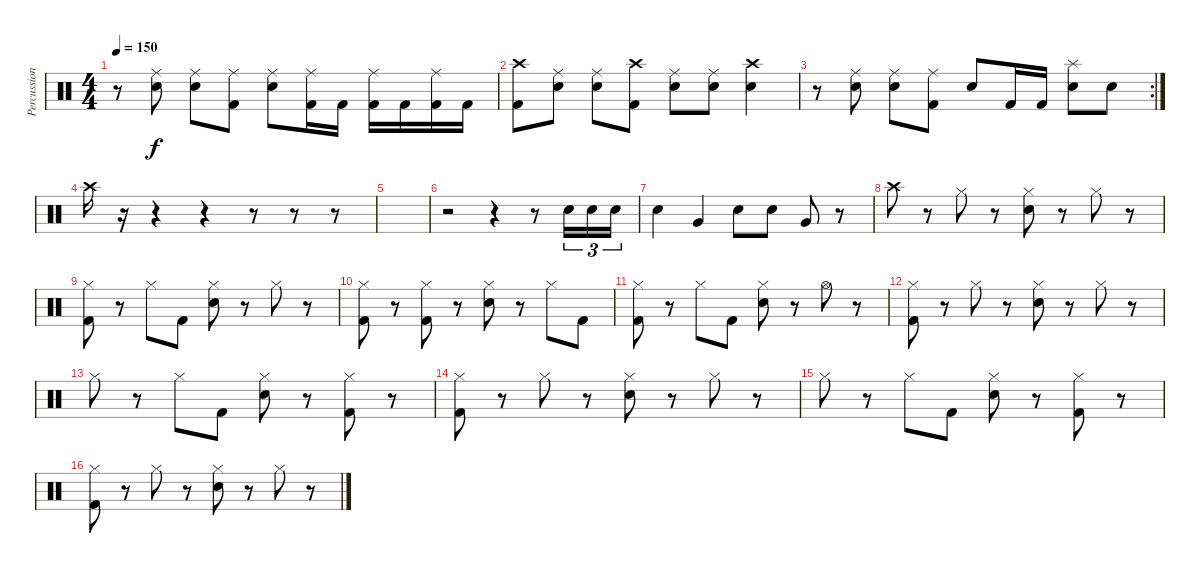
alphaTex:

\track ("Percussion" "Percussion") {instrument percussion}
\staff {score}
\articulation defaults
\ts (4 4)
\tempo 150
\clef neutral
\ks c
r.8{dy f} ("Ride (middle)" "Electric Snare (hit)").8 ("Ride (middle)" "Electric Snare (hit)").8 ("Ride (middle)" "Kick (hit) 2").8 ("Ride (middle)" "Electric Snare (hit)").8 ("Ride (middle)" "Kick (hit) 2").16 "Kick (hit) 2".16 ("Ride (middle)" "Kick (hit) 2").16 "Kick (hit) 2".16 ("Ride (middle)" "Kick (hit) 2").16 "Kick (hit) 2".16 |
("Crash high (hit)" "Kick (hit) 2").8 ("Ride (middle)" "Electric Snare (hit)").8 ("Ride (middle)" "Electric Snare (hit)").8 ("Crash high (hit)" "Kick (hit) 2").8 ("Ride (middle)" "Electric Snare (hit)").8 ("Ride (middle)" "Electric Snare (hit)").8 ("Crash high (hit)" "Electric Snare (hit)").4 |
\rc 2
r.8 ("Ride (middle)" "Electric Snare (hit)").8 ("Ride (middle)" "Electric Snare (hit)").8 ("Ride (middle)" "Kick (hit) 2").8 "Electric Snare (hit)".8 "Kick (hit) 2".16 "Kick (hit) 2".16 ("Splash (hit)" "Electric Snare (hit)").8 "Electric Snare (hit)".8 |
"Crash high (hit)".16 r.16 r.4 r.4 r.8 r.8 r.8 |
|
r.2 r.4 r.8 "Electric Snare (hit)".16{tu (3 2)} "Electric Snare (hit)".16{tu (3 2)} "Electric Snare (hit)".16{tu (3 2)} |
"Electric Snare (hit)".4 "Very Low Tom (hit)".4 "Electric Snare (hit)".8 "Electric Snare (hit)".8 "Very Low Tom (hit)".8 r.8 |
"Crash high (hit)".8 r.8 "Hi-Hat (closed)".8 r.8 ("Hi-Hat (closed)" "Electric Snare (hit)").8 r.8 "Hi-Hat (closed)".8 r.8 |
("Hi-Hat (closed)" "Kick (hit) 2").8 r.8 "Hi-Hat (closed)".8 "Kick (hit) 2".8 ("Hi-Hat (closed)" "Electric Snare (hit)").8 r.8 "Hi-Hat (closed)".8 r.8 |
("Hi-Hat (closed)" "Kick (hit) 2").8 r.8 ("Hi-Hat (closed)" "Kick (hit) 2").8 r.8 ("Hi-Hat (closed)" "Electric Snare (hit)").8 r.8 "Hi-Hat (closed)".8 "Kick (hit) 2".8 |
("Hi-Hat (closed)" "Kick (hit) 2").8 r.8 "Hi-Hat (closed)".8 "Kick (hit) 2".8 ("Hi-Hat (closed)" "Electric Snare (hit)").8 r.8 "Hi-Hat (open)".8 r.8 |
("Hi-Hat (closed)" "Kick (hit) 2").8 r.8 "Hi-Hat (closed)".8 r.8 ("Hi-Hat (closed)" "Electric Snare (hit)").8 r.8 "Hi-Hat (closed)".8 r.8 |
"Hi-Hat (closed)".8 r.8 "Hi-Hat (closed)".8 "Kick (hit) 2".8 ("Hi-Hat (closed)" "Electric Snare (hit)").8 r.8 ("Hi-Hat (closed)" "Kick (hit) 2").8 r.8 |
("Hi-Hat (closed)" "Kick (hit) 2").8 r.8 "Hi-Hat (closed)".8 r.8 ("Hi-Hat (closed)" "Electric Snare (hit)").8 r.8 "Hi-Hat (closed)".8 r.8 |
"Hi-Hat (closed)".8 r.8 "Hi-Hat (closed)".8 "Kick (hit) 2".8 ("Hi-Hat (closed)" "Electric Snare (hit)").8 r.8 ("Hi-Hat (closed)" "Kick (hit) 2").8 r.8 |
("Hi-Hat (closed)" "Kick (hit) 2").8 r.8 "Hi-Hat (closed)".8 r.8 ("Hi-Hat (closed)" "Electric Snare (hit)").8 r.8 "Hi-Hat (closed)".8 r.8
